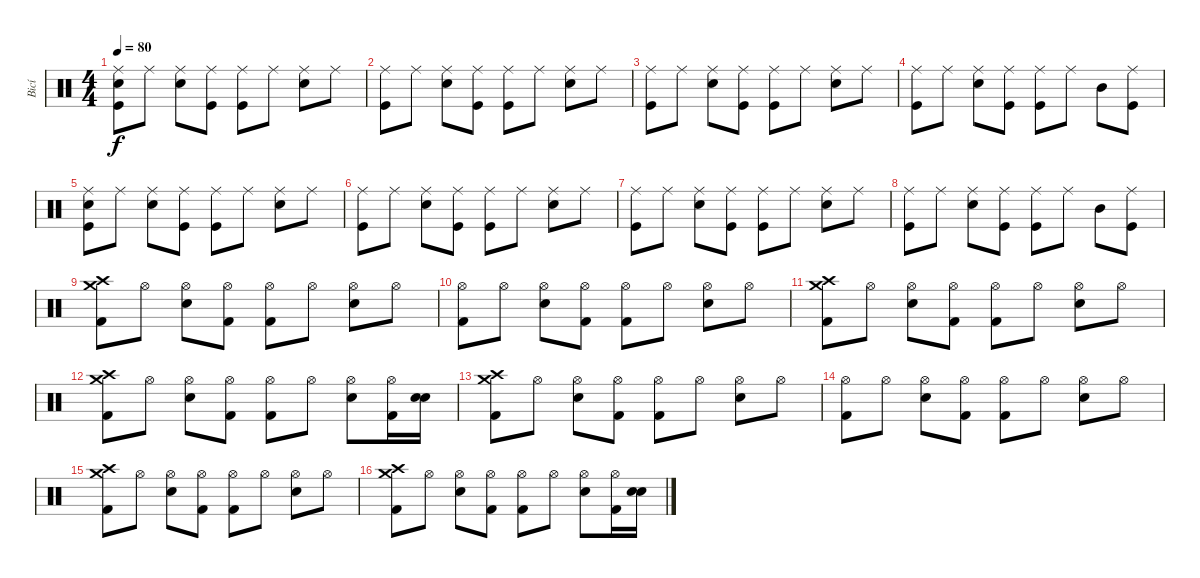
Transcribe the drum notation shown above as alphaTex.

\track ("Bicí" "Bicí") {instrument percussion}
\staff {score}
\articulation defaults
\ts (4 4)
\tempo 80
\clef neutral
\ks c
("Ride (middle)" "Snare (hit) 2" "Kick (hit)").8{dy f} "Ride (middle)".8 ("Ride (middle)" "Snare (hit) 2").8 ("Ride (middle)" "Kick (hit)").8 ("Ride (middle)" "Kick (hit)").8 "Ride (middle)".8 ("Ride (middle)" "Snare (hit) 2").8 "Ride (middle)".8 |
("Ride (middle)" "Kick (hit)").8 "Ride (middle)".8 ("Ride (middle)" "Snare (hit) 2").8 ("Ride (middle)" "Kick (hit)").8 ("Ride (middle)" "Kick (hit)").8 "Ride (middle)".8 ("Ride (middle)" "Snare (hit) 2").8 "Ride (middle)".8 |
("Ride (middle)" "Kick (hit)").8 "Ride (middle)".8 ("Ride (middle)" "Snare (hit) 2").8 ("Ride (middle)" "Kick (hit)").8 ("Ride (middle)" "Kick (hit)").8 "Ride (middle)".8 ("Ride (middle)" "Snare (hit) 2").8 "Ride (middle)".8 |
("Ride (middle)" "Kick (hit)").8 "Ride (middle)".8 ("Ride (middle)" "Snare (hit) 2").8 ("Ride (middle)" "Kick (hit)").8 ("Ride (middle)" "Kick (hit)").8 "Ride (middle)".8 "Mid Tom (hit)".8 ("Ride (middle)" "Kick (hit)").8 |
("Ride (middle)" "Snare (hit) 2" "Kick (hit)").8 "Ride (middle)".8 ("Ride (middle)" "Snare (hit) 2").8 ("Ride (middle)" "Kick (hit)").8 ("Ride (middle)" "Kick (hit)").8 "Ride (middle)".8 ("Ride (middle)" "Snare (hit) 2").8 "Ride (middle)".8 |
("Ride (middle)" "Kick (hit)").8 "Ride (middle)".8 ("Ride (middle)" "Snare (hit) 2").8 ("Ride (middle)" "Kick (hit)").8 ("Ride (middle)" "Kick (hit)").8 "Ride (middle)".8 ("Ride (middle)" "Snare (hit) 2").8 "Ride (middle)".8 |
("Ride (middle)" "Kick (hit)").8 "Ride (middle)".8 ("Ride (middle)" "Snare (hit) 2").8 ("Ride (middle)" "Kick (hit)").8 ("Ride (middle)" "Kick (hit)").8 "Ride (middle)".8 ("Ride (middle)" "Snare (hit) 2").8 "Ride (middle)".8 |
("Ride (middle)" "Kick (hit)").8 "Ride (middle)".8 ("Ride (middle)" "Snare (hit) 2").8 ("Ride (middle)" "Kick (hit)").8 ("Ride (middle)" "Kick (hit)").8 "Ride (middle)".8 "Mid Tom (hit)".8 ("Ride (middle)" "Kick (hit)").8 |
("Crash medium (hit)" "Crash high (hit)" "Kick (hit) 2").8 "Hi-Hat (open)".8 ("Hi-Hat (open)" "Snare (hit) 2").8 ("Hi-Hat (open)" "Kick (hit) 2").8 ("Hi-Hat (open)" "Kick (hit) 2").8 "Hi-Hat (open)".8 ("Hi-Hat (open)" "Snare (hit) 2").8 "Hi-Hat (open)".8 |
("Hi-Hat (open)" "Kick (hit) 2").8 "Hi-Hat (open)".8 ("Hi-Hat (open)" "Snare (hit) 2").8 ("Hi-Hat (open)" "Kick (hit) 2").8 ("Hi-Hat (open)" "Kick (hit) 2").8 "Hi-Hat (open)".8 ("Hi-Hat (open)" "Snare (hit) 2").8 "Hi-Hat (open)".8 |
("Crash medium (hit)" "Crash high (hit)" "Kick (hit) 2").8 "Hi-Hat (open)".8 ("Hi-Hat (open)" "Snare (hit) 2").8 ("Hi-Hat (open)" "Kick (hit) 2").8 ("Hi-Hat (open)" "Kick (hit) 2").8 "Hi-Hat (open)".8 ("Hi-Hat (open)" "Snare (hit) 2").8 "Hi-Hat (open)".8 |
("Crash medium (hit)" "Crash high (hit)" "Kick (hit) 2").8 "Hi-Hat (open)".8 ("Hi-Hat (open)" "Snare (hit) 2").8 ("Hi-Hat (open)" "Kick (hit) 2").8 ("Hi-Hat (open)" "Kick (hit) 2").8 "Hi-Hat (open)".8 ("Hi-Hat (open)" "Snare (hit) 2").8 ("Hi-Hat (open)" "Kick (hit) 2").16 ("Snare (hit) 2" "Snare (hit) 2").16 |
("Crash medium (hit)" "Crash high (hit)" "Kick (hit) 2").8 "Hi-Hat (open)".8 ("Hi-Hat (open)" "Snare (hit) 2").8 ("Hi-Hat (open)" "Kick (hit) 2").8 ("Hi-Hat (open)" "Kick (hit) 2").8 "Hi-Hat (open)".8 ("Hi-Hat (open)" "Snare (hit) 2").8 "Hi-Hat (open)".8 |
("Hi-Hat (open)" "Kick (hit) 2").8 "Hi-Hat (open)".8 ("Hi-Hat (open)" "Snare (hit) 2").8 ("Hi-Hat (open)" "Kick (hit) 2").8 ("Hi-Hat (open)" "Kick (hit) 2").8 "Hi-Hat (open)".8 ("Hi-Hat (open)" "Snare (hit) 2").8 "Hi-Hat (open)".8 |
("Crash medium (hit)" "Crash high (hit)" "Kick (hit) 2").8 "Hi-Hat (open)".8 ("Hi-Hat (open)" "Snare (hit) 2").8 ("Hi-Hat (open)" "Kick (hit) 2").8 ("Hi-Hat (open)" "Kick (hit) 2").8 "Hi-Hat (open)".8 ("Hi-Hat (open)" "Snare (hit) 2").8 "Hi-Hat (open)".8 |
("Crash medium (hit)" "Crash high (hit)" "Kick (hit) 2").8 "Hi-Hat (open)".8 ("Hi-Hat (open)" "Snare (hit) 2").8 ("Hi-Hat (open)" "Kick (hit) 2").8 ("Hi-Hat (open)" "Kick (hit) 2").8 "Hi-Hat (open)".8 ("Hi-Hat (open)" "Snare (hit) 2").8 ("Hi-Hat (open)" "Kick (hit) 2").16 ("Snare (hit) 2" "Snare (hit) 2").16
